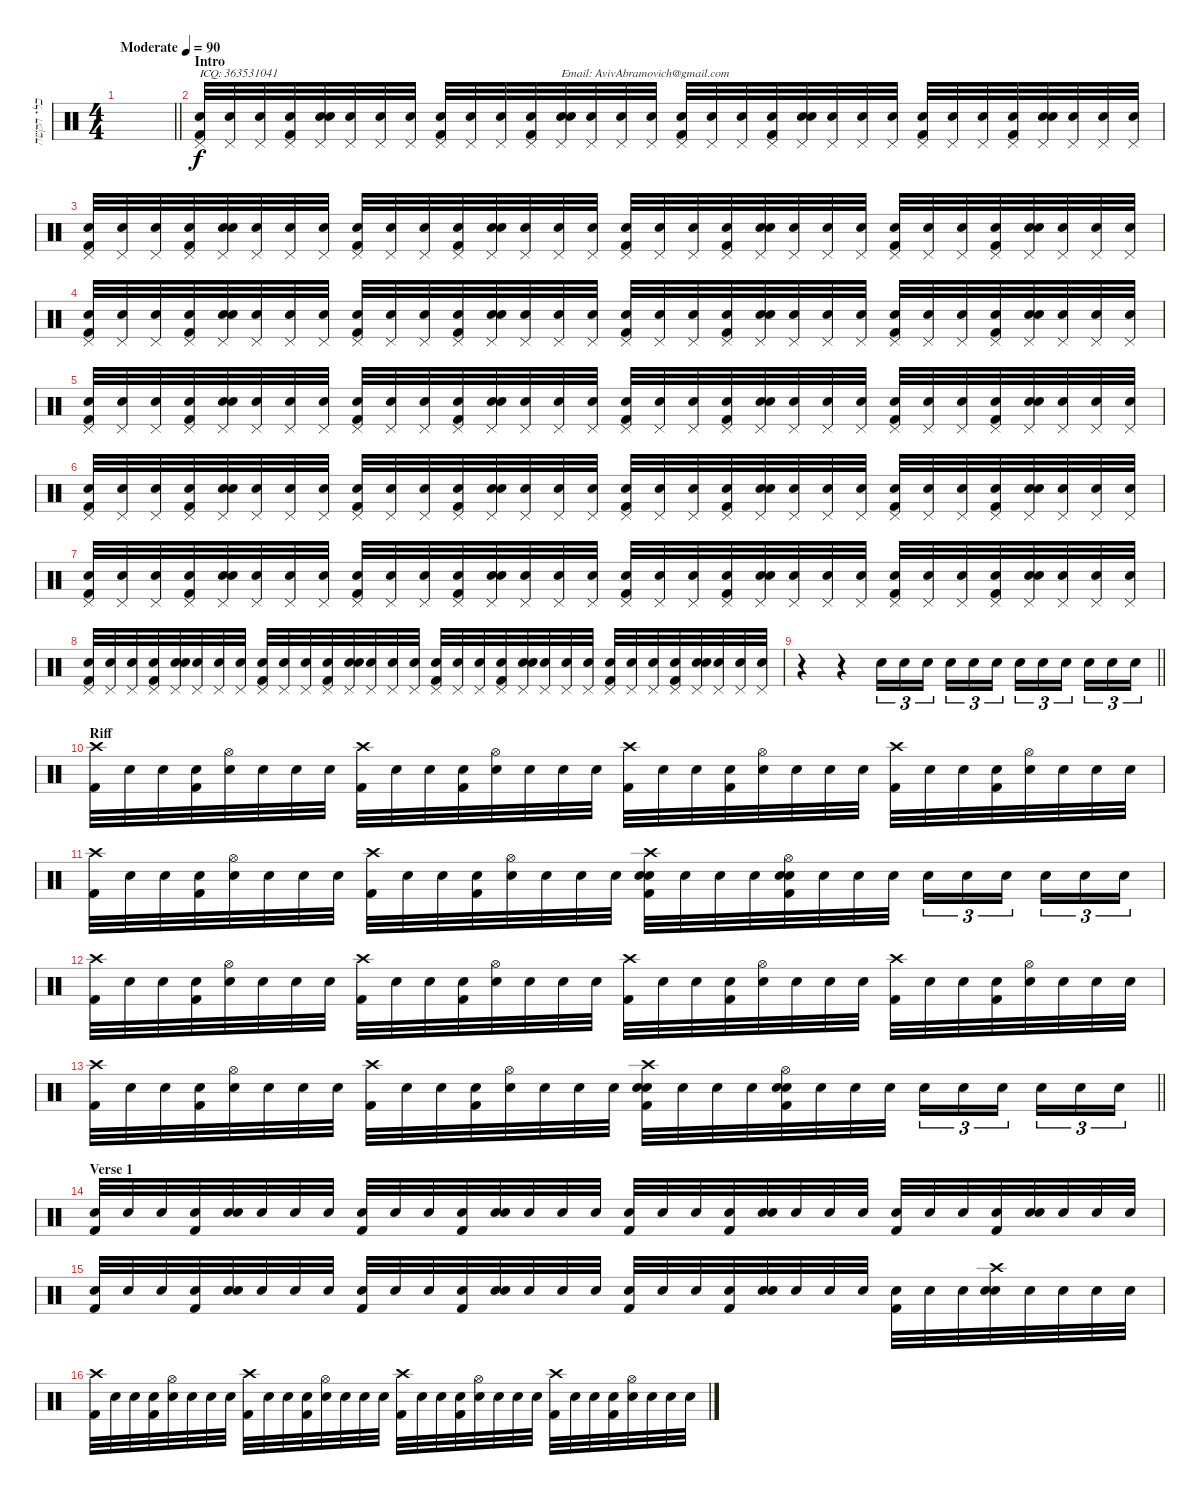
\track ("כלי הקשה" "כלי הקשה") {instrument percussion bank 127}
\staff {score}
\articulation defaults
\ts (4 4)
\tempo (90 "Moderate")
\clef neutral
\barLineRight lightlight
\ks c
|
\section ("" "Intro")
("Snare (hit)" "Pedal Hi-Hat (hit)" "Kick (hit) 2").32{txt "ICQ: 363531041"} ("Snare (hit)" "Pedal Hi-Hat (hit)").32 ("Snare (hit)" "Pedal Hi-Hat (hit)").32 ("Snare (hit)" "Pedal Hi-Hat (hit)" "Kick (hit) 2").32 ("Snare (hit)" "Pedal Hi-Hat (hit)" "Snare (hit) 2").32 ("Snare (hit)" "Pedal Hi-Hat (hit)").32 ("Snare (hit)" "Pedal Hi-Hat (hit)").32 ("Snare (hit)" "Pedal Hi-Hat (hit)").32 ("Snare (hit)" "Pedal Hi-Hat (hit)" "Kick (hit) 2").32 ("Snare (hit)" "Pedal Hi-Hat (hit)").32 ("Snare (hit)" "Pedal Hi-Hat (hit)").32 ("Snare (hit)" "Pedal Hi-Hat (hit)" "Kick (hit) 2").32 ("Snare (hit)" "Pedal Hi-Hat (hit)" "Snare (hit) 2").32{txt "Email: AvivAbramovich@gmail.com"} ("Snare (hit)" "Pedal Hi-Hat (hit)").32 ("Snare (hit)" "Pedal Hi-Hat (hit)").32 ("Snare (hit)" "Pedal Hi-Hat (hit)").32 ("Snare (hit)" "Pedal Hi-Hat (hit)" "Kick (hit) 2").32 ("Snare (hit)" "Pedal Hi-Hat (hit)").32 ("Snare (hit)" "Pedal Hi-Hat (hit)").32 ("Snare (hit)" "Pedal Hi-Hat (hit)" "Kick (hit) 2").32 ("Snare (hit)" "Pedal Hi-Hat (hit)" "Snare (hit) 2").32 ("Snare (hit)" "Pedal Hi-Hat (hit)").32 ("Snare (hit)" "Pedal Hi-Hat (hit)").32 ("Snare (hit)" "Pedal Hi-Hat (hit)").32 ("Snare (hit)" "Pedal Hi-Hat (hit)" "Kick (hit) 2").32 ("Snare (hit)" "Pedal Hi-Hat (hit)").32 ("Snare (hit)" "Pedal Hi-Hat (hit)").32 ("Snare (hit)" "Pedal Hi-Hat (hit)" "Kick (hit) 2").32 ("Snare (hit)" "Pedal Hi-Hat (hit)" "Snare (hit) 2").32 ("Snare (hit)" "Pedal Hi-Hat (hit)").32 ("Snare (hit)" "Pedal Hi-Hat (hit)").32 ("Snare (hit)" "Pedal Hi-Hat (hit)").32 |
("Snare (hit)" "Pedal Hi-Hat (hit)" "Kick (hit) 2").32 ("Snare (hit)" "Pedal Hi-Hat (hit)").32 ("Snare (hit)" "Pedal Hi-Hat (hit)").32 ("Snare (hit)" "Pedal Hi-Hat (hit)" "Kick (hit) 2").32 ("Snare (hit)" "Pedal Hi-Hat (hit)" "Snare (hit) 2").32 ("Snare (hit)" "Pedal Hi-Hat (hit)").32 ("Snare (hit)" "Pedal Hi-Hat (hit)").32 ("Snare (hit)" "Pedal Hi-Hat (hit)").32 ("Snare (hit)" "Pedal Hi-Hat (hit)" "Kick (hit) 2").32 ("Snare (hit)" "Pedal Hi-Hat (hit)").32 ("Snare (hit)" "Pedal Hi-Hat (hit)").32 ("Snare (hit)" "Pedal Hi-Hat (hit)" "Kick (hit) 2").32 ("Snare (hit)" "Pedal Hi-Hat (hit)" "Snare (hit) 2").32 ("Snare (hit)" "Pedal Hi-Hat (hit)").32 ("Snare (hit)" "Pedal Hi-Hat (hit)").32 ("Snare (hit)" "Pedal Hi-Hat (hit)").32 ("Snare (hit)" "Pedal Hi-Hat (hit)" "Kick (hit) 2").32 ("Snare (hit)" "Pedal Hi-Hat (hit)").32 ("Snare (hit)" "Pedal Hi-Hat (hit)").32 ("Snare (hit)" "Pedal Hi-Hat (hit)" "Kick (hit) 2").32 ("Snare (hit)" "Pedal Hi-Hat (hit)" "Snare (hit) 2").32 ("Snare (hit)" "Pedal Hi-Hat (hit)").32 ("Snare (hit)" "Pedal Hi-Hat (hit)").32 ("Snare (hit)" "Pedal Hi-Hat (hit)").32 ("Snare (hit)" "Pedal Hi-Hat (hit)" "Kick (hit) 2").32 ("Snare (hit)" "Pedal Hi-Hat (hit)").32 ("Snare (hit)" "Pedal Hi-Hat (hit)").32 ("Snare (hit)" "Pedal Hi-Hat (hit)" "Kick (hit) 2").32 ("Snare (hit)" "Pedal Hi-Hat (hit)" "Snare (hit) 2").32 ("Snare (hit)" "Pedal Hi-Hat (hit)").32 ("Snare (hit)" "Pedal Hi-Hat (hit)").32 ("Snare (hit)" "Pedal Hi-Hat (hit)").32 |
("Snare (hit)" "Pedal Hi-Hat (hit)" "Kick (hit) 2").32 ("Snare (hit)" "Pedal Hi-Hat (hit)").32 ("Snare (hit)" "Pedal Hi-Hat (hit)").32 ("Snare (hit)" "Pedal Hi-Hat (hit)" "Kick (hit) 2").32 ("Snare (hit)" "Pedal Hi-Hat (hit)" "Snare (hit) 2").32 ("Snare (hit)" "Pedal Hi-Hat (hit)").32 ("Snare (hit)" "Pedal Hi-Hat (hit)").32 ("Snare (hit)" "Pedal Hi-Hat (hit)").32 ("Snare (hit)" "Pedal Hi-Hat (hit)" "Kick (hit) 2").32 ("Snare (hit)" "Pedal Hi-Hat (hit)").32 ("Snare (hit)" "Pedal Hi-Hat (hit)").32 ("Snare (hit)" "Pedal Hi-Hat (hit)" "Kick (hit) 2").32 ("Snare (hit)" "Pedal Hi-Hat (hit)" "Snare (hit) 2").32 ("Snare (hit)" "Pedal Hi-Hat (hit)").32 ("Snare (hit)" "Pedal Hi-Hat (hit)").32 ("Snare (hit)" "Pedal Hi-Hat (hit)").32 ("Snare (hit)" "Pedal Hi-Hat (hit)" "Kick (hit) 2").32 ("Snare (hit)" "Pedal Hi-Hat (hit)").32 ("Snare (hit)" "Pedal Hi-Hat (hit)").32 ("Snare (hit)" "Pedal Hi-Hat (hit)" "Kick (hit) 2").32 ("Snare (hit)" "Pedal Hi-Hat (hit)" "Snare (hit) 2").32 ("Snare (hit)" "Pedal Hi-Hat (hit)").32 ("Snare (hit)" "Pedal Hi-Hat (hit)").32 ("Snare (hit)" "Pedal Hi-Hat (hit)").32 ("Snare (hit)" "Pedal Hi-Hat (hit)" "Kick (hit) 2").32 ("Snare (hit)" "Pedal Hi-Hat (hit)").32 ("Snare (hit)" "Pedal Hi-Hat (hit)").32 ("Snare (hit)" "Pedal Hi-Hat (hit)" "Kick (hit) 2").32 ("Snare (hit)" "Pedal Hi-Hat (hit)" "Snare (hit) 2").32 ("Snare (hit)" "Pedal Hi-Hat (hit)").32 ("Snare (hit)" "Pedal Hi-Hat (hit)").32 ("Snare (hit)" "Pedal Hi-Hat (hit)").32 |
("Snare (hit)" "Pedal Hi-Hat (hit)" "Kick (hit) 2").32 ("Snare (hit)" "Pedal Hi-Hat (hit)").32 ("Snare (hit)" "Pedal Hi-Hat (hit)").32 ("Snare (hit)" "Pedal Hi-Hat (hit)" "Kick (hit) 2").32 ("Snare (hit)" "Pedal Hi-Hat (hit)" "Snare (hit) 2").32 ("Snare (hit)" "Pedal Hi-Hat (hit)").32 ("Snare (hit)" "Pedal Hi-Hat (hit)").32 ("Snare (hit)" "Pedal Hi-Hat (hit)").32 ("Snare (hit)" "Pedal Hi-Hat (hit)" "Kick (hit) 2").32 ("Snare (hit)" "Pedal Hi-Hat (hit)").32 ("Snare (hit)" "Pedal Hi-Hat (hit)").32 ("Snare (hit)" "Pedal Hi-Hat (hit)" "Kick (hit) 2").32 ("Snare (hit)" "Pedal Hi-Hat (hit)" "Snare (hit) 2").32 ("Snare (hit)" "Pedal Hi-Hat (hit)").32 ("Snare (hit)" "Pedal Hi-Hat (hit)").32 ("Snare (hit)" "Pedal Hi-Hat (hit)").32 ("Snare (hit)" "Pedal Hi-Hat (hit)" "Kick (hit) 2").32 ("Snare (hit)" "Pedal Hi-Hat (hit)").32 ("Snare (hit)" "Pedal Hi-Hat (hit)").32 ("Snare (hit)" "Pedal Hi-Hat (hit)" "Kick (hit) 2").32 ("Snare (hit)" "Pedal Hi-Hat (hit)" "Snare (hit) 2").32 ("Snare (hit)" "Pedal Hi-Hat (hit)").32 ("Snare (hit)" "Pedal Hi-Hat (hit)").32 ("Snare (hit)" "Pedal Hi-Hat (hit)").32 ("Snare (hit)" "Pedal Hi-Hat (hit)" "Kick (hit) 2").32 ("Snare (hit)" "Pedal Hi-Hat (hit)").32 ("Snare (hit)" "Pedal Hi-Hat (hit)").32 ("Snare (hit)" "Pedal Hi-Hat (hit)" "Kick (hit) 2").32 ("Snare (hit)" "Pedal Hi-Hat (hit)" "Snare (hit) 2").32 ("Snare (hit)" "Pedal Hi-Hat (hit)").32 ("Snare (hit)" "Pedal Hi-Hat (hit)").32 ("Snare (hit)" "Pedal Hi-Hat (hit)").32 |
("Snare (hit)" "Pedal Hi-Hat (hit)" "Kick (hit) 2").32 ("Snare (hit)" "Pedal Hi-Hat (hit)").32 ("Snare (hit)" "Pedal Hi-Hat (hit)").32 ("Snare (hit)" "Pedal Hi-Hat (hit)" "Kick (hit) 2").32 ("Snare (hit)" "Pedal Hi-Hat (hit)" "Snare (hit) 2").32 ("Snare (hit)" "Pedal Hi-Hat (hit)").32 ("Snare (hit)" "Pedal Hi-Hat (hit)").32 ("Snare (hit)" "Pedal Hi-Hat (hit)").32 ("Snare (hit)" "Pedal Hi-Hat (hit)" "Kick (hit) 2").32 ("Snare (hit)" "Pedal Hi-Hat (hit)").32 ("Snare (hit)" "Pedal Hi-Hat (hit)").32 ("Snare (hit)" "Pedal Hi-Hat (hit)" "Kick (hit) 2").32 ("Snare (hit)" "Pedal Hi-Hat (hit)" "Snare (hit) 2").32 ("Snare (hit)" "Pedal Hi-Hat (hit)").32 ("Snare (hit)" "Pedal Hi-Hat (hit)").32 ("Snare (hit)" "Pedal Hi-Hat (hit)").32 ("Snare (hit)" "Pedal Hi-Hat (hit)" "Kick (hit) 2").32 ("Snare (hit)" "Pedal Hi-Hat (hit)").32 ("Snare (hit)" "Pedal Hi-Hat (hit)").32 ("Snare (hit)" "Pedal Hi-Hat (hit)" "Kick (hit) 2").32 ("Snare (hit)" "Pedal Hi-Hat (hit)" "Snare (hit) 2").32 ("Snare (hit)" "Pedal Hi-Hat (hit)").32 ("Snare (hit)" "Pedal Hi-Hat (hit)").32 ("Snare (hit)" "Pedal Hi-Hat (hit)").32 ("Snare (hit)" "Pedal Hi-Hat (hit)" "Kick (hit) 2").32 ("Snare (hit)" "Pedal Hi-Hat (hit)").32 ("Snare (hit)" "Pedal Hi-Hat (hit)").32 ("Snare (hit)" "Pedal Hi-Hat (hit)" "Kick (hit) 2").32 ("Snare (hit)" "Pedal Hi-Hat (hit)" "Snare (hit) 2").32 ("Snare (hit)" "Pedal Hi-Hat (hit)").32 ("Snare (hit)" "Pedal Hi-Hat (hit)").32 ("Snare (hit)" "Pedal Hi-Hat (hit)").32 |
("Snare (hit)" "Pedal Hi-Hat (hit)" "Kick (hit) 2").32 ("Snare (hit)" "Pedal Hi-Hat (hit)").32 ("Snare (hit)" "Pedal Hi-Hat (hit)").32 ("Snare (hit)" "Pedal Hi-Hat (hit)" "Kick (hit) 2").32 ("Snare (hit)" "Pedal Hi-Hat (hit)" "Snare (hit) 2").32 ("Snare (hit)" "Pedal Hi-Hat (hit)").32 ("Snare (hit)" "Pedal Hi-Hat (hit)").32 ("Snare (hit)" "Pedal Hi-Hat (hit)").32 ("Snare (hit)" "Pedal Hi-Hat (hit)" "Kick (hit) 2").32 ("Snare (hit)" "Pedal Hi-Hat (hit)").32 ("Snare (hit)" "Pedal Hi-Hat (hit)").32 ("Snare (hit)" "Pedal Hi-Hat (hit)" "Kick (hit) 2").32 ("Snare (hit)" "Pedal Hi-Hat (hit)" "Snare (hit) 2").32 ("Snare (hit)" "Pedal Hi-Hat (hit)").32 ("Snare (hit)" "Pedal Hi-Hat (hit)").32 ("Snare (hit)" "Pedal Hi-Hat (hit)").32 ("Snare (hit)" "Pedal Hi-Hat (hit)" "Kick (hit) 2").32 ("Snare (hit)" "Pedal Hi-Hat (hit)").32 ("Snare (hit)" "Pedal Hi-Hat (hit)").32 ("Snare (hit)" "Pedal Hi-Hat (hit)" "Kick (hit) 2").32 ("Snare (hit)" "Pedal Hi-Hat (hit)" "Snare (hit) 2").32 ("Snare (hit)" "Pedal Hi-Hat (hit)").32 ("Snare (hit)" "Pedal Hi-Hat (hit)").32 ("Snare (hit)" "Pedal Hi-Hat (hit)").32 ("Snare (hit)" "Pedal Hi-Hat (hit)" "Kick (hit) 2").32 ("Snare (hit)" "Pedal Hi-Hat (hit)").32 ("Snare (hit)" "Pedal Hi-Hat (hit)").32 ("Snare (hit)" "Pedal Hi-Hat (hit)" "Kick (hit) 2").32 ("Snare (hit)" "Pedal Hi-Hat (hit)" "Snare (hit) 2").32 ("Snare (hit)" "Pedal Hi-Hat (hit)").32 ("Snare (hit)" "Pedal Hi-Hat (hit)").32 ("Snare (hit)" "Pedal Hi-Hat (hit)").32 |
("Snare (hit)" "Pedal Hi-Hat (hit)" "Kick (hit) 2").32 ("Snare (hit)" "Pedal Hi-Hat (hit)").32 ("Snare (hit)" "Pedal Hi-Hat (hit)").32 ("Snare (hit)" "Pedal Hi-Hat (hit)" "Kick (hit) 2").32 ("Snare (hit)" "Pedal Hi-Hat (hit)" "Snare (hit) 2").32 ("Snare (hit)" "Pedal Hi-Hat (hit)").32 ("Snare (hit)" "Pedal Hi-Hat (hit)").32 ("Snare (hit)" "Pedal Hi-Hat (hit)").32 ("Snare (hit)" "Pedal Hi-Hat (hit)" "Kick (hit) 2").32 ("Snare (hit)" "Pedal Hi-Hat (hit)").32 ("Snare (hit)" "Pedal Hi-Hat (hit)").32 ("Snare (hit)" "Pedal Hi-Hat (hit)" "Kick (hit) 2").32 ("Snare (hit)" "Pedal Hi-Hat (hit)" "Snare (hit) 2").32 ("Snare (hit)" "Pedal Hi-Hat (hit)").32 ("Snare (hit)" "Pedal Hi-Hat (hit)").32 ("Snare (hit)" "Pedal Hi-Hat (hit)").32 ("Snare (hit)" "Pedal Hi-Hat (hit)" "Kick (hit) 2").32 ("Snare (hit)" "Pedal Hi-Hat (hit)").32 ("Snare (hit)" "Pedal Hi-Hat (hit)").32 ("Snare (hit)" "Pedal Hi-Hat (hit)" "Kick (hit) 2").32 ("Snare (hit)" "Pedal Hi-Hat (hit)" "Snare (hit) 2").32 ("Snare (hit)" "Pedal Hi-Hat (hit)").32 ("Snare (hit)" "Pedal Hi-Hat (hit)").32 ("Snare (hit)" "Pedal Hi-Hat (hit)").32 ("Snare (hit)" "Pedal Hi-Hat (hit)" "Kick (hit) 2").32 ("Snare (hit)" "Pedal Hi-Hat (hit)").32 ("Snare (hit)" "Pedal Hi-Hat (hit)").32 ("Snare (hit)" "Pedal Hi-Hat (hit)" "Kick (hit) 2").32 ("Snare (hit)" "Pedal Hi-Hat (hit)" "Snare (hit) 2").32 ("Snare (hit)" "Pedal Hi-Hat (hit)").32 ("Snare (hit)" "Pedal Hi-Hat (hit)").32 ("Snare (hit)" "Pedal Hi-Hat (hit)").32 |
\barLineRight lightlight
r.4 r.4 "Snare (hit) 2".16{tu (3 2)} "Snare (hit) 2".16{tu (3 2)} "Snare (hit) 2".16{tu (3 2) beam splitsecondary} "Snare (hit) 2".16{tu (3 2)} "Snare (hit) 2".16{tu (3 2)} "Snare (hit) 2".16{tu (3 2)} "Snare (hit) 2".16{tu (3 2)} "Snare (hit) 2".16{tu (3 2)} "Snare (hit) 2".16{tu (3 2) beam splitsecondary} "Snare (hit) 2".16{tu (3 2)} "Snare (hit) 2".16{tu (3 2)} "Snare (hit) 2".16{tu (3 2)} |
\section ("" "Riff")
("Crash high (hit)" "Kick (hit) 2").32 "Snare (hit)".32 "Snare (hit)".32 ("Snare (hit)" "Kick (hit) 2").32 ("Hi-Hat (open)" "Snare (hit) 2").32 "Snare (hit)".32 "Snare (hit)".32 "Snare (hit)".32 ("Crash high (hit)" "Kick (hit) 2").32 "Snare (hit)".32 "Snare (hit)".32 ("Snare (hit)" "Kick (hit) 2").32 ("Hi-Hat (open)" "Snare (hit) 2").32 "Snare (hit)".32 "Snare (hit)".32 "Snare (hit)".32 ("Crash high (hit)" "Kick (hit) 2").32 "Snare (hit)".32 "Snare (hit)".32 ("Snare (hit)" "Kick (hit) 2").32 ("Hi-Hat (open)" "Snare (hit) 2").32 "Snare (hit)".32 "Snare (hit)".32 "Snare (hit)".32 ("Crash high (hit)" "Kick (hit) 2").32 "Snare (hit)".32 "Snare (hit)".32 ("Snare (hit)" "Kick (hit) 2").32 ("Hi-Hat (open)" "Snare (hit) 2").32 "Snare (hit)".32 "Snare (hit)".32 "Snare (hit)".32 |
("Crash high (hit)" "Kick (hit) 2").32 "Snare (hit)".32 "Snare (hit)".32 ("Snare (hit)" "Kick (hit) 2").32 ("Hi-Hat (open)" "Snare (hit) 2").32 "Snare (hit)".32 "Snare (hit)".32 "Snare (hit)".32 ("Crash high (hit)" "Kick (hit) 2").32 "Snare (hit)".32 "Snare (hit)".32 ("Snare (hit)" "Kick (hit) 2").32 ("Hi-Hat (open)" "Snare (hit) 2").32 "Snare (hit)".32 "Snare (hit)".32 "Snare (hit)".32 ("Crash high (hit)" "Snare (hit) 2" "Snare (hit) 2" "Kick (hit) 2").32 "Snare (hit)".32 "Snare (hit)".32 "Snare (hit)".32 ("Hi-Hat (open)" "Snare (hit) 2" "Snare (hit) 2" "Kick (hit) 2").32 "Snare (hit)".32 "Snare (hit)".32 "Snare (hit)".32 "Snare (hit) 2".16{tu (3 2)} "Snare (hit) 2".16{tu (3 2)} "Snare (hit) 2".16{tu (3 2) beam splitsecondary} "Snare (hit) 2".16{tu (3 2)} "Snare (hit) 2".16{tu (3 2)} "Snare (hit) 2".16{tu (3 2)} |
("Crash high (hit)" "Kick (hit) 2").32 "Snare (hit)".32 "Snare (hit)".32 ("Snare (hit)" "Kick (hit) 2").32 ("Hi-Hat (open)" "Snare (hit) 2").32 "Snare (hit)".32 "Snare (hit)".32 "Snare (hit)".32 ("Crash high (hit)" "Kick (hit) 2").32 "Snare (hit)".32 "Snare (hit)".32 ("Snare (hit)" "Kick (hit) 2").32 ("Hi-Hat (open)" "Snare (hit) 2").32 "Snare (hit)".32 "Snare (hit)".32 "Snare (hit)".32 ("Crash high (hit)" "Kick (hit) 2").32 "Snare (hit)".32 "Snare (hit)".32 ("Snare (hit)" "Kick (hit) 2").32 ("Hi-Hat (open)" "Snare (hit) 2").32 "Snare (hit)".32 "Snare (hit)".32 "Snare (hit)".32 ("Crash high (hit)" "Kick (hit) 2").32 "Snare (hit)".32 "Snare (hit)".32 ("Snare (hit)" "Kick (hit) 2").32 ("Hi-Hat (open)" "Snare (hit) 2").32 "Snare (hit)".32 "Snare (hit)".32 "Snare (hit)".32 |
\barLineRight lightlight
("Crash high (hit)" "Kick (hit) 2").32 "Snare (hit)".32 "Snare (hit)".32 ("Snare (hit)" "Kick (hit) 2").32 ("Hi-Hat (open)" "Snare (hit) 2").32 "Snare (hit)".32 "Snare (hit)".32 "Snare (hit)".32 ("Crash high (hit)" "Kick (hit) 2").32 "Snare (hit)".32 "Snare (hit)".32 ("Snare (hit)" "Kick (hit) 2").32 ("Hi-Hat (open)" "Snare (hit) 2").32 "Snare (hit)".32 "Snare (hit)".32 "Snare (hit)".32 ("Crash high (hit)" "Snare (hit) 2" "Snare (hit) 2" "Kick (hit) 2").32 "Snare (hit)".32 "Snare (hit)".32 "Snare (hit)".32 ("Hi-Hat (open)" "Snare (hit) 2" "Snare (hit) 2" "Kick (hit) 2").32 "Snare (hit)".32 "Snare (hit)".32 "Snare (hit)".32 "Snare (hit) 2".16{tu (3 2)} "Snare (hit) 2".16{tu (3 2)} "Snare (hit) 2".16{tu (3 2) beam splitsecondary} "Snare (hit) 2".16{tu (3 2)} "Snare (hit) 2".16{tu (3 2)} "Snare (hit) 2".16{tu (3 2)} |
\section ("" "Verse 1")
("Snare (hit)" "Kick (hit) 2").32 "Snare (hit)".32 "Snare (hit)".32 ("Snare (hit)" "Kick (hit) 2").32 ("Snare (hit)" "Snare (hit) 2").32 "Snare (hit)".32 "Snare (hit)".32 "Snare (hit)".32 ("Snare (hit)" "Kick (hit) 2").32 "Snare (hit)".32 "Snare (hit)".32 ("Snare (hit)" "Kick (hit) 2").32 ("Snare (hit)" "Snare (hit) 2").32 "Snare (hit)".32 "Snare (hit)".32 "Snare (hit)".32 ("Snare (hit)" "Kick (hit) 2").32 "Snare (hit)".32 "Snare (hit)".32 ("Snare (hit)" "Kick (hit) 2").32 ("Snare (hit)" "Snare (hit) 2").32 "Snare (hit)".32 "Snare (hit)".32 "Snare (hit)".32 ("Snare (hit)" "Kick (hit) 2").32 "Snare (hit)".32 "Snare (hit)".32 ("Snare (hit)" "Kick (hit) 2").32 ("Snare (hit)" "Snare (hit) 2").32 "Snare (hit)".32 "Snare (hit)".32 "Snare (hit)".32 |
("Snare (hit)" "Kick (hit) 2").32 "Snare (hit)".32 "Snare (hit)".32 ("Snare (hit)" "Kick (hit) 2").32 ("Snare (hit)" "Snare (hit) 2").32 "Snare (hit)".32 "Snare (hit)".32 "Snare (hit)".32 ("Snare (hit)" "Kick (hit) 2").32 "Snare (hit)".32 "Snare (hit)".32 ("Snare (hit)" "Kick (hit) 2").32 ("Snare (hit)" "Snare (hit) 2").32 "Snare (hit)".32 "Snare (hit)".32 "Snare (hit)".32 ("Snare (hit)" "Kick (hit) 2").32 "Snare (hit)".32 "Snare (hit)".32 ("Snare (hit)" "Kick (hit) 2").32 ("Snare (hit)" "Snare (hit) 2").32 "Snare (hit)".32 "Snare (hit)".32 "Snare (hit)".32 ("Snare (hit)" "Kick (hit) 2").32 "Snare (hit)".32 "Snare (hit)".32 ("Crash high (hit)" "Snare (hit) 2" "Snare (hit) 2").32 "Snare (hit)".32 "Snare (hit)".32 "Snare (hit)".32 "Snare (hit)".32 |
("Crash high (hit)" "Kick (hit) 2").32 "Snare (hit)".32 "Snare (hit)".32 ("Snare (hit)" "Kick (hit) 2").32 ("Hi-Hat (open)" "Snare (hit) 2").32 "Snare (hit)".32 "Snare (hit)".32 "Snare (hit)".32 ("Crash high (hit)" "Kick (hit) 2").32 "Snare (hit)".32 "Snare (hit)".32 ("Snare (hit)" "Kick (hit) 2").32 ("Hi-Hat (open)" "Snare (hit) 2").32 "Snare (hit)".32 "Snare (hit)".32 "Snare (hit)".32 ("Crash high (hit)" "Kick (hit) 2").32 "Snare (hit)".32 "Snare (hit)".32 ("Snare (hit)" "Kick (hit) 2").32 ("Hi-Hat (open)" "Snare (hit) 2").32 "Snare (hit)".32 "Snare (hit)".32 "Snare (hit)".32 ("Crash high (hit)" "Kick (hit) 2").32 "Snare (hit)".32 "Snare (hit)".32 ("Snare (hit)" "Kick (hit) 2").32 ("Hi-Hat (open)" "Snare (hit) 2").32 "Snare (hit)".32 "Snare (hit)".32 "Snare (hit)".32
